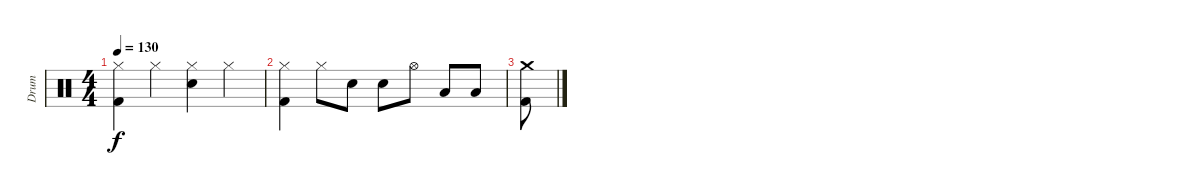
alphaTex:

\track ("Drum" "Drum") {instrument percussion}
\staff {score}
\articulation defaults
\ts (4 4)
\tempo 130
\clef neutral
\ks c
("Hi-Hat (closed)" "Kick (hit) 2").4{dy f} "Hi-Hat (closed)".4 ("Hi-Hat (closed)" "Snare (hit) 2").4 "Hi-Hat (closed)".4 |
("Hi-Hat (closed)" "Kick (hit) 2").4 "Hi-Hat (closed)".8 "Snare (hit) 2".8 "Snare (hit) 2".8 "Hi-Hat (open)".8 "Low Tom (hit)".8 "Low Tom (hit)".8 |
("Crash medium (hit)" "Kick (hit) 2").8
